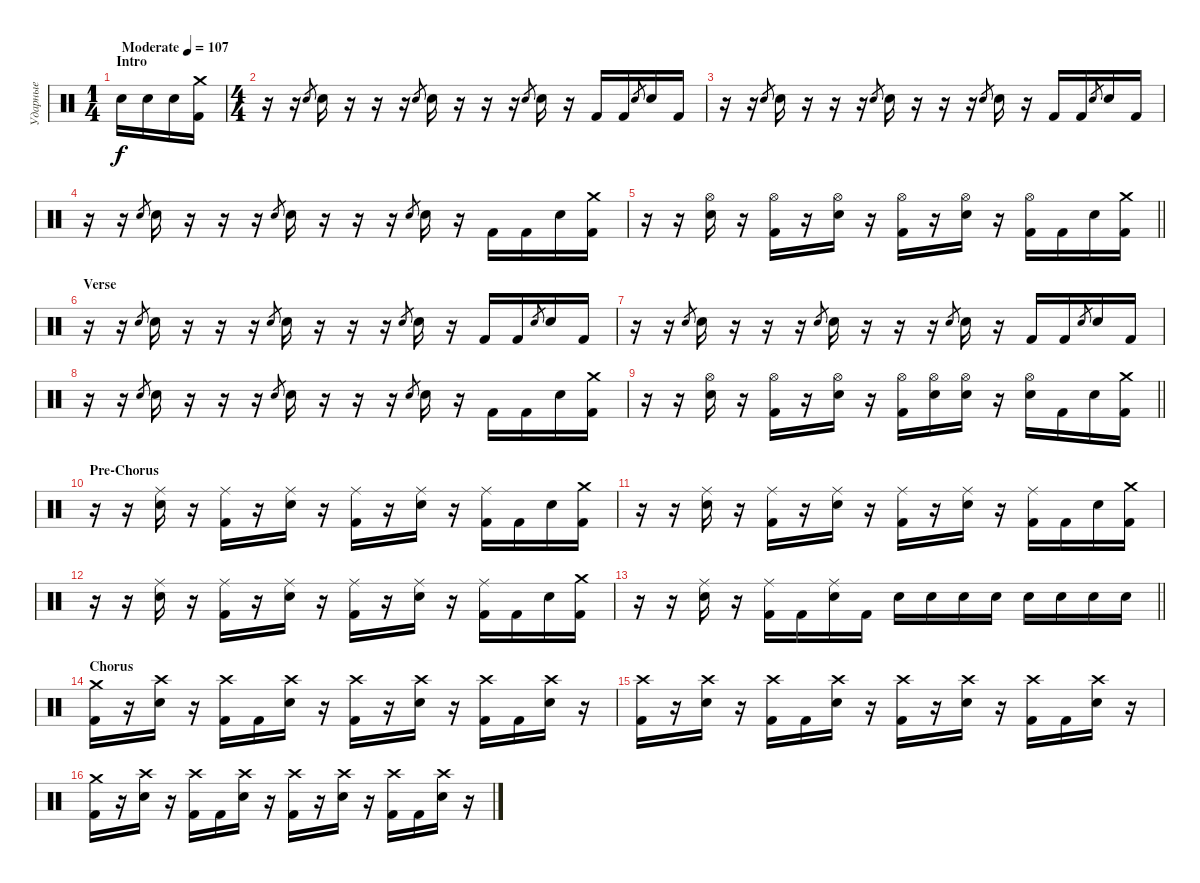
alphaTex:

\track ("Ударные" "Ударные") {instrument percussion}
\staff {score}
\articulation defaults
\ts (1 4)
\section ("" "Intro")
\tempo (107 "Moderate")
\clef neutral
\ks c "Electric Snare (hit)".16{dy f} "Electric Snare (hit)".16 "Electric Snare (hit)".16
("Crash medium (hit)" "Kick (hit) 2").16 |
\ts (4 4)
r.16 r.16 "Electric Snare (hit)".8{gr} "Electric Snare (hit)".16 r.16 r.16 r.16 "Electric Snare (hit)".8{gr} "Electric Snare (hit)".16 r.16 r.16 r.16 "Electric Snare (hit)".8{gr} "Electric Snare (hit)".16 r.16 "Kick (hit) 2".16 "Kick (hit) 2".16 "Electric Snare (hit)".8{gr} "Electric Snare (hit)".16 "Kick (hit) 2".16 |
r.16 r.16 "Electric Snare (hit)".8{gr} "Electric Snare (hit)".16 r.16 r.16 r.16 "Electric Snare (hit)".8{gr} "Electric Snare (hit)".16 r.16 r.16 r.16 "Electric Snare (hit)".8{gr} "Electric Snare (hit)".16 r.16 "Kick (hit) 2".16 "Kick (hit) 2".16 "Electric Snare (hit)".8{gr} "Electric Snare (hit)".16 "Kick (hit) 2".16 |
r.16 r.16 "Electric Snare (hit)".8{gr} "Electric Snare (hit)".16 r.16 r.16 r.16 "Electric Snare (hit)".8{gr} "Electric Snare (hit)".16 r.16 r.16 r.16 "Electric Snare (hit)".8{gr} "Electric Snare (hit)".16 r.16 "Kick (hit) 2".16 "Kick (hit) 2".16 "Electric Snare (hit)".16 ("Crash medium (hit)" "Kick (hit) 2").16 |
\barLineRight lightlight
r.16 r.16 ("Hi-Hat (open)" "Electric Snare (hit)").16 r.16 ("Hi-Hat (open)" "Kick (hit) 2").16 r.16 ("Hi-Hat (open)" "Electric Snare (hit)").16 r.16 ("Hi-Hat (open)" "Kick (hit) 2").16 r.16 ("Hi-Hat (open)" "Electric Snare (hit)").16 r.16 ("Hi-Hat (open)" "Kick (hit) 2").16 "Kick (hit) 2".16 "Electric Snare (hit)".16 ("Crash medium (hit)" "Kick (hit) 2").16 |
\section ("" "Verse")
r.16 r.16 "Electric Snare (hit)".8{gr} "Electric Snare (hit)".16 r.16 r.16 r.16 "Electric Snare (hit)".8{gr} "Electric Snare (hit)".16 r.16 r.16 r.16 "Electric Snare (hit)".8{gr} "Electric Snare (hit)".16 r.16 "Kick (hit) 2".16 "Kick (hit) 2".16 "Electric Snare (hit)".8{gr} "Electric Snare (hit)".16 "Kick (hit) 2".16 |
r.16 r.16 "Electric Snare (hit)".8{gr} "Electric Snare (hit)".16 r.16 r.16 r.16 "Electric Snare (hit)".8{gr} "Electric Snare (hit)".16 r.16 r.16 r.16 "Electric Snare (hit)".8{gr} "Electric Snare (hit)".16 r.16 "Kick (hit) 2".16 "Kick (hit) 2".16 "Electric Snare (hit)".8{gr} "Electric Snare (hit)".16 "Kick (hit) 2".16 |
r.16 r.16 "Electric Snare (hit)".8{gr} "Electric Snare (hit)".16 r.16 r.16 r.16 "Electric Snare (hit)".8{gr} "Electric Snare (hit)".16 r.16 r.16 r.16 "Electric Snare (hit)".8{gr} "Electric Snare (hit)".16 r.16 "Kick (hit) 2".16 "Kick (hit) 2".16 "Electric Snare (hit)".16 ("Crash medium (hit)" "Kick (hit) 2").16 |
\barLineRight lightlight
r.16 r.16 ("Hi-Hat (open)" "Electric Snare (hit)").16 r.16 ("Hi-Hat (open)" "Kick (hit) 2").16 r.16 ("Hi-Hat (open)" "Electric Snare (hit)").16 r.16 ("Hi-Hat (open)" "Kick (hit) 2").16 ("Hi-Hat (open)" "Electric Snare (hit)").16 ("Hi-Hat (open)" "Electric Snare (hit)").16 r.16 ("Hi-Hat (open)" "Electric Snare (hit)").16 "Kick (hit) 2".16 "Electric Snare (hit)".16 ("Crash medium (hit)" "Kick (hit) 2").16 |
\section ("" "Pre-Chorus")
r.16 r.16 ("Ride (middle)" "Electric Snare (hit)").16 r.16 ("Ride (middle)" "Kick (hit) 2").16 r.16 ("Ride (middle)" "Electric Snare (hit)").16 r.16 ("Ride (middle)" "Kick (hit) 2").16 r.16 ("Ride (middle)" "Electric Snare (hit)").16 r.16 ("Ride (middle)" "Kick (hit) 2").16 "Kick (hit) 2".16 "Electric Snare (hit)".16 ("Crash medium (hit)" "Kick (hit) 2").16 |
r.16 r.16 ("Ride (middle)" "Electric Snare (hit)").16 r.16 ("Ride (middle)" "Kick (hit) 2").16 r.16 ("Ride (middle)" "Electric Snare (hit)").16 r.16 ("Ride (middle)" "Kick (hit) 2").16 r.16 ("Ride (middle)" "Electric Snare (hit)").16 r.16 ("Ride (middle)" "Kick (hit) 2").16 "Kick (hit) 2".16 "Electric Snare (hit)".16 ("Crash medium (hit)" "Kick (hit) 2").16 |
r.16 r.16 ("Ride (middle)" "Electric Snare (hit)").16 r.16 ("Ride (middle)" "Kick (hit) 2").16 r.16 ("Ride (middle)" "Electric Snare (hit)").16 r.16 ("Ride (middle)" "Kick (hit) 2").16 r.16 ("Ride (middle)" "Electric Snare (hit)").16 r.16 ("Ride (middle)" "Kick (hit) 2").16 "Kick (hit) 2".16 "Electric Snare (hit)".16 ("Crash medium (hit)" "Kick (hit) 2").16 |
\barLineRight lightlight
r.16 r.16 ("Ride (middle)" "Electric Snare (hit)").16 r.16 ("Ride (middle)" "Kick (hit) 2").16 "Kick (hit) 2".16 ("Ride (middle)" "Electric Snare (hit)").16 "Kick (hit) 2".16 "Electric Snare (hit)".16 "Electric Snare (hit)".16 "Electric Snare (hit)".16 "Electric Snare (hit)".16 "Electric Snare (hit)".16 "Electric Snare (hit)".16 "Electric Snare (hit)".16 "Electric Snare (hit)".16 |
\section ("" "Chorus")
("Crash medium (hit)" "Kick (hit) 2").16 r.16 ("Crash high (hit)" "Electric Snare (hit)").16 r.16 ("Crash high (hit)" "Kick (hit) 2").16 "Kick (hit) 2".16 ("Crash high (hit)" "Electric Snare (hit)").16 r.16 ("Crash high (hit)" "Kick (hit) 2").16 r.16 ("Crash high (hit)" "Electric Snare (hit)").16 r.16 ("Crash high (hit)" "Kick (hit) 2").16 "Kick (hit) 2".16 ("Crash high (hit)" "Electric Snare (hit)").16 r.16 |
("Crash high (hit)" "Kick (hit) 2").16 r.16 ("Crash high (hit)" "Electric Snare (hit)").16 r.16 ("Crash high (hit)" "Kick (hit) 2").16 "Kick (hit) 2".16 ("Crash high (hit)" "Electric Snare (hit)").16 r.16 ("Crash high (hit)" "Kick (hit) 2").16 r.16 ("Crash high (hit)" "Electric Snare (hit)").16 r.16 ("Crash high (hit)" "Kick (hit) 2").16 "Kick (hit) 2".16 ("Crash high (hit)" "Electric Snare (hit)").16 r.16 |
("Crash medium (hit)" "Kick (hit) 2").16 r.16 ("Crash high (hit)" "Electric Snare (hit)").16 r.16 ("Crash high (hit)" "Kick (hit) 2").16 "Kick (hit) 2".16 ("Crash high (hit)" "Electric Snare (hit)").16 r.16 ("Crash high (hit)" "Kick (hit) 2").16 r.16 ("Crash high (hit)" "Electric Snare (hit)").16 r.16 ("Crash high (hit)" "Kick (hit) 2").16 "Kick (hit) 2".16 ("Crash high (hit)" "Electric Snare (hit)").16 r.16
